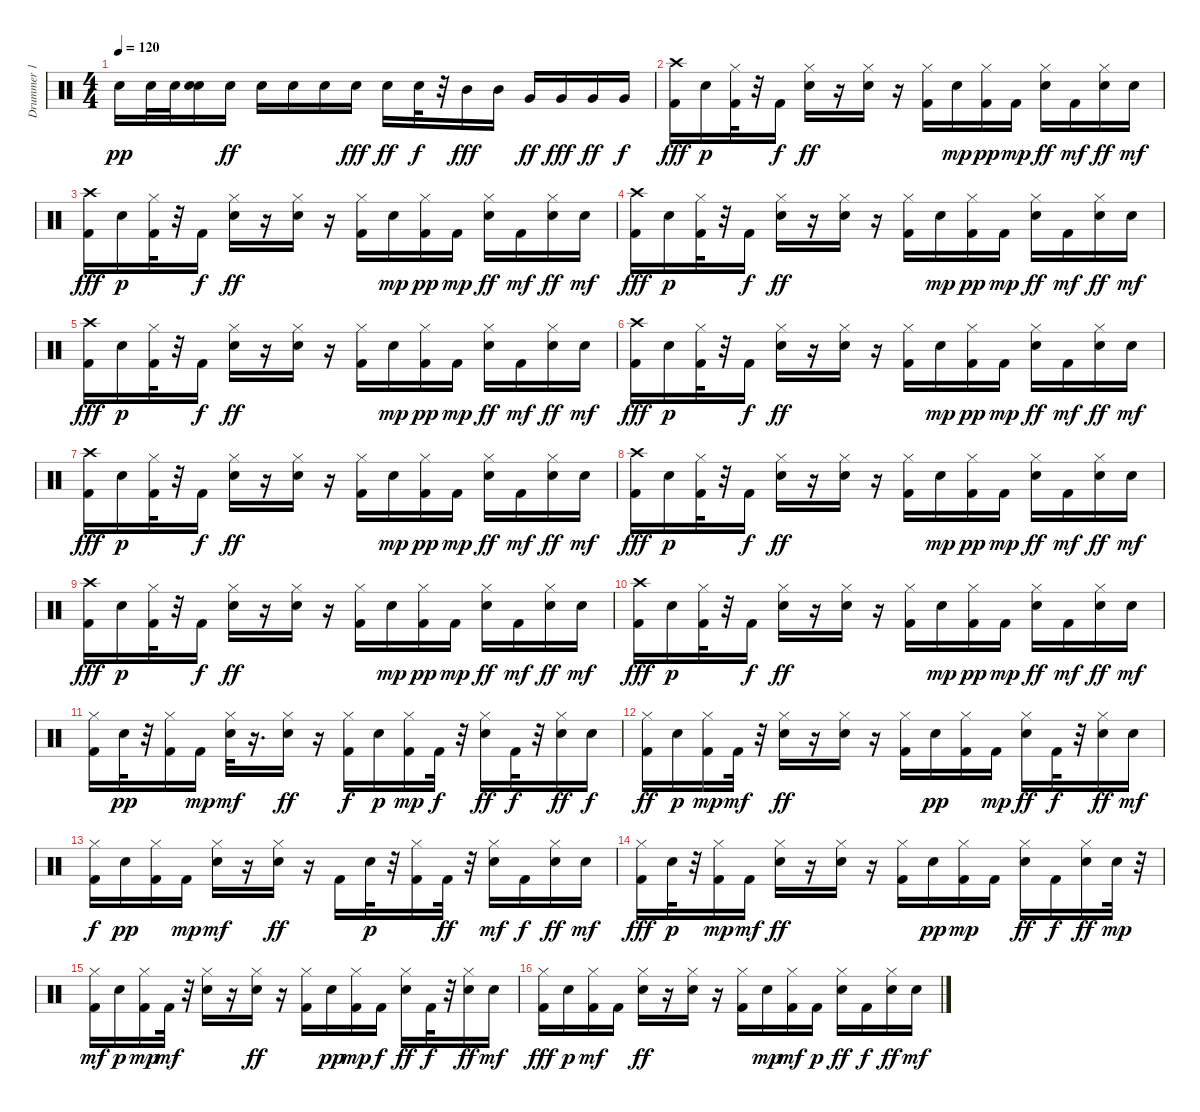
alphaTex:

\track ("Drummer 1" "Drummer 1") {instrument percussion}
\staff {score}
\articulation defaults
\ts (4 4)
\tempo 120
\clef neutral
\ks c "Electric Snare (hit)".16{dy pp} "Electric Snare (hit)".32 "Electric Snare (hit)".32
("Electric Snare (hit)" "Electric Snare (hit)").16 "Electric Snare (hit)".16{dy ff} "Electric Snare (hit)".16 "Electric Snare (hit)".16 "Electric Snare (hit)".16 "Electric Snare (hit)".16{dy fff} "Electric Snare (hit)".16{dy ff} "Electric Snare (hit)".32{dy f} r.32 "Mid Tom (hit)".16{dy fff} "Mid Tom (hit)".16 "Very Low Tom (hit)".16{dy ff} "Very Low Tom (hit)".16{dy fff} "Very Low Tom (hit)".16{dy ff} "Very Low Tom (hit)".16{dy f} |
("Crash high (hit)" "Kick (hit) 2").16{dy fff} "Electric Snare (hit)".16{dy p} ("Hi-Hat (closed)" "Kick (hit) 2").32 r.32 "Kick (hit) 2".16{dy f} ("Hi-Hat (closed)" "Electric Snare (hit)").16{dy ff} r.16 ("Hi-Hat (closed)" "Electric Snare (hit)").16 r.16 ("Hi-Hat (closed)" "Kick (hit) 2").16 "Electric Snare (hit)".16{dy mp} ("Kick (hit) 2" "Hi-Hat (closed)").16{dy pp} "Kick (hit) 2".16{dy mp} ("Hi-Hat (closed)" "Electric Snare (hit)").16{dy ff} "Kick (hit) 2".16{dy mf} ("Hi-Hat (closed)" "Electric Snare (hit)").16{dy ff} "Electric Snare (hit)".16{dy mf} |
("Crash high (hit)" "Kick (hit) 2").16{dy fff} "Electric Snare (hit)".16{dy p} ("Hi-Hat (closed)" "Kick (hit) 2").32 r.32 "Kick (hit) 2".16{dy f} ("Hi-Hat (closed)" "Electric Snare (hit)").16{dy ff} r.16 ("Hi-Hat (closed)" "Electric Snare (hit)").16 r.16 ("Hi-Hat (closed)" "Kick (hit) 2").16 "Electric Snare (hit)".16{dy mp} ("Kick (hit) 2" "Hi-Hat (closed)").16{dy pp} "Kick (hit) 2".16{dy mp} ("Hi-Hat (closed)" "Electric Snare (hit)").16{dy ff} "Kick (hit) 2".16{dy mf} ("Hi-Hat (closed)" "Electric Snare (hit)").16{dy ff} "Electric Snare (hit)".16{dy mf} |
("Crash high (hit)" "Kick (hit) 2").16{dy fff} "Electric Snare (hit)".16{dy p} ("Hi-Hat (closed)" "Kick (hit) 2").32 r.32 "Kick (hit) 2".16{dy f} ("Hi-Hat (closed)" "Electric Snare (hit)").16{dy ff} r.16 ("Hi-Hat (closed)" "Electric Snare (hit)").16 r.16 ("Hi-Hat (closed)" "Kick (hit) 2").16 "Electric Snare (hit)".16{dy mp} ("Kick (hit) 2" "Hi-Hat (closed)").16{dy pp} "Kick (hit) 2".16{dy mp} ("Hi-Hat (closed)" "Electric Snare (hit)").16{dy ff} "Kick (hit) 2".16{dy mf} ("Hi-Hat (closed)" "Electric Snare (hit)").16{dy ff} "Electric Snare (hit)".16{dy mf} |
("Crash high (hit)" "Kick (hit) 2").16{dy fff} "Electric Snare (hit)".16{dy p} ("Hi-Hat (closed)" "Kick (hit) 2").32 r.32 "Kick (hit) 2".16{dy f} ("Hi-Hat (closed)" "Electric Snare (hit)").16{dy ff} r.16 ("Hi-Hat (closed)" "Electric Snare (hit)").16 r.16 ("Hi-Hat (closed)" "Kick (hit) 2").16 "Electric Snare (hit)".16{dy mp} ("Kick (hit) 2" "Hi-Hat (closed)").16{dy pp} "Kick (hit) 2".16{dy mp} ("Hi-Hat (closed)" "Electric Snare (hit)").16{dy ff} "Kick (hit) 2".16{dy mf} ("Hi-Hat (closed)" "Electric Snare (hit)").16{dy ff} "Electric Snare (hit)".16{dy mf} |
("Crash high (hit)" "Kick (hit) 2").16{dy fff} "Electric Snare (hit)".16{dy p} ("Hi-Hat (closed)" "Kick (hit) 2").32 r.32 "Kick (hit) 2".16{dy f} ("Hi-Hat (closed)" "Electric Snare (hit)").16{dy ff} r.16 ("Hi-Hat (closed)" "Electric Snare (hit)").16 r.16 ("Hi-Hat (closed)" "Kick (hit) 2").16 "Electric Snare (hit)".16{dy mp} ("Kick (hit) 2" "Hi-Hat (closed)").16{dy pp} "Kick (hit) 2".16{dy mp} ("Hi-Hat (closed)" "Electric Snare (hit)").16{dy ff} "Kick (hit) 2".16{dy mf} ("Hi-Hat (closed)" "Electric Snare (hit)").16{dy ff} "Electric Snare (hit)".16{dy mf} |
("Crash high (hit)" "Kick (hit) 2").16{dy fff} "Electric Snare (hit)".16{dy p} ("Hi-Hat (closed)" "Kick (hit) 2").32 r.32 "Kick (hit) 2".16{dy f} ("Hi-Hat (closed)" "Electric Snare (hit)").16{dy ff} r.16 ("Hi-Hat (closed)" "Electric Snare (hit)").16 r.16 ("Hi-Hat (closed)" "Kick (hit) 2").16 "Electric Snare (hit)".16{dy mp} ("Kick (hit) 2" "Hi-Hat (closed)").16{dy pp} "Kick (hit) 2".16{dy mp} ("Hi-Hat (closed)" "Electric Snare (hit)").16{dy ff} "Kick (hit) 2".16{dy mf} ("Hi-Hat (closed)" "Electric Snare (hit)").16{dy ff} "Electric Snare (hit)".16{dy mf} |
("Crash high (hit)" "Kick (hit) 2").16{dy fff} "Electric Snare (hit)".16{dy p} ("Hi-Hat (closed)" "Kick (hit) 2").32 r.32 "Kick (hit) 2".16{dy f} ("Hi-Hat (closed)" "Electric Snare (hit)").16{dy ff} r.16 ("Hi-Hat (closed)" "Electric Snare (hit)").16 r.16 ("Hi-Hat (closed)" "Kick (hit) 2").16 "Electric Snare (hit)".16{dy mp} ("Kick (hit) 2" "Hi-Hat (closed)").16{dy pp} "Kick (hit) 2".16{dy mp} ("Hi-Hat (closed)" "Electric Snare (hit)").16{dy ff} "Kick (hit) 2".16{dy mf} ("Hi-Hat (closed)" "Electric Snare (hit)").16{dy ff} "Electric Snare (hit)".16{dy mf} |
("Crash high (hit)" "Kick (hit) 2").16{dy fff} "Electric Snare (hit)".16{dy p} ("Hi-Hat (closed)" "Kick (hit) 2").32 r.32 "Kick (hit) 2".16{dy f} ("Hi-Hat (closed)" "Electric Snare (hit)").16{dy ff} r.16 ("Hi-Hat (closed)" "Electric Snare (hit)").16 r.16 ("Hi-Hat (closed)" "Kick (hit) 2").16 "Electric Snare (hit)".16{dy mp} ("Kick (hit) 2" "Hi-Hat (closed)").16{dy pp} "Kick (hit) 2".16{dy mp} ("Hi-Hat (closed)" "Electric Snare (hit)").16{dy ff} "Kick (hit) 2".16{dy mf} ("Hi-Hat (closed)" "Electric Snare (hit)").16{dy ff} "Electric Snare (hit)".16{dy mf} |
("Crash high (hit)" "Kick (hit) 2").16{dy fff} "Electric Snare (hit)".16{dy p} ("Hi-Hat (closed)" "Kick (hit) 2").32 r.32 "Kick (hit) 2".16{dy f} ("Hi-Hat (closed)" "Electric Snare (hit)").16{dy ff} r.16 ("Hi-Hat (closed)" "Electric Snare (hit)").16 r.16 ("Hi-Hat (closed)" "Kick (hit) 2").16 "Electric Snare (hit)".16{dy mp} ("Kick (hit) 2" "Hi-Hat (closed)").16{dy pp} "Kick (hit) 2".16{dy mp} ("Hi-Hat (closed)" "Electric Snare (hit)").16{dy ff} "Kick (hit) 2".16{dy mf} ("Hi-Hat (closed)" "Electric Snare (hit)").16{dy ff} "Electric Snare (hit)".16{dy mf} |
("Hi-Hat (closed)" "Kick (hit) 2").16 "Electric Snare (hit)".32{dy pp} r.32 ("Kick (hit) 2" "Hi-Hat (closed)").16 "Kick (hit) 2".16{dy mp} ("Electric Snare (hit)" "Hi-Hat (closed)").32{dy mf} r.16{d} ("Hi-Hat (closed)" "Electric Snare (hit)").16{dy ff} r.16 ("Hi-Hat (closed)" "Kick (hit) 2").16{dy f} "Electric Snare (hit)".16{dy p} ("Hi-Hat (closed)" "Kick (hit) 2").16{dy mp} "Kick (hit) 2".32{dy f} r.32 ("Hi-Hat (closed)" "Electric Snare (hit)").16{dy ff} "Kick (hit) 2".32{dy f} r.32 ("Hi-Hat (closed)" "Electric Snare (hit)").16{dy ff} "Electric Snare (hit)".16{dy f} |
("Hi-Hat (closed)" "Kick (hit) 2").16{dy ff} "Electric Snare (hit)".16{dy p} ("Hi-Hat (closed)" "Kick (hit) 2").16{dy mp} "Kick (hit) 2".32{dy mf} r.32 ("Hi-Hat (closed)" "Electric Snare (hit)").16{dy ff} r.16 ("Hi-Hat (closed)" "Electric Snare (hit)").16 r.16 ("Hi-Hat (closed)" "Kick (hit) 2").16 "Electric Snare (hit)".16{dy pp} ("Kick (hit) 2" "Hi-Hat (closed)").16 "Kick (hit) 2".16{dy mp} ("Hi-Hat (closed)" "Electric Snare (hit)").16{dy ff} "Kick (hit) 2".32{dy f} r.32 ("Hi-Hat (closed)" "Electric Snare (hit)").16{dy ff} "Electric Snare (hit)".16{dy mf} |
("Hi-Hat (closed)" "Kick (hit) 2").16{dy f} "Electric Snare (hit)".16{dy pp} ("Kick (hit) 2" "Hi-Hat (closed)").16 "Kick (hit) 2".16{dy mp} ("Electric Snare (hit)" "Hi-Hat (closed)").16{dy mf} r.16 ("Hi-Hat (closed)" "Electric Snare (hit)").16{dy ff} r.16 "Kick (hit) 2".16 "Electric Snare (hit)".32{dy p} r.32 ("Hi-Hat (closed)" "Kick (hit) 2").16 "Kick (hit) 2".32{dy ff} r.32 ("Hi-Hat (closed)" "Electric Snare (hit)").16{dy mf} "Kick (hit) 2".16{dy f} ("Hi-Hat (closed)" "Electric Snare (hit)").16{dy ff} "Electric Snare (hit)".16{dy mf} |
("Hi-Hat (closed)" "Kick (hit) 2").16{dy fff} "Electric Snare (hit)".32{dy p} r.32 ("Hi-Hat (closed)" "Kick (hit) 2").16{dy mp} "Kick (hit) 2".16{dy mf} ("Hi-Hat (closed)" "Electric Snare (hit)").16{dy ff} r.16 ("Hi-Hat (closed)" "Electric Snare (hit)").16 r.16 ("Hi-Hat (closed)" "Kick (hit) 2").16 "Electric Snare (hit)".16{dy pp} ("Kick (hit) 2" "Hi-Hat (closed)").16{dy mp} "Kick (hit) 2".16 ("Hi-Hat (closed)" "Electric Snare (hit)").16{dy ff} "Kick (hit) 2".16{dy f} ("Hi-Hat (closed)" "Electric Snare (hit)").16{dy ff} "Electric Snare (hit)".32{dy mp} r.32 |
("Hi-Hat (closed)" "Kick (hit) 2").16{dy mf} "Electric Snare (hit)".16{dy p} ("Kick (hit) 2" "Hi-Hat (closed)").16{dy mp} "Kick (hit) 2".32{dy mf} r.32 ("Electric Snare (hit)" "Hi-Hat (closed)").16 r.16 ("Hi-Hat (closed)" "Electric Snare (hit)").16{dy ff} r.16 ("Hi-Hat (closed)" "Kick (hit) 2").16 "Electric Snare (hit)".16{dy pp} ("Hi-Hat (closed)" "Kick (hit) 2").16{dy mp} "Kick (hit) 2".16{dy f} ("Hi-Hat (closed)" "Electric Snare (hit)").16{dy ff} "Kick (hit) 2".32{dy f} r.32 ("Hi-Hat (closed)" "Electric Snare (hit)").16{dy ff} "Electric Snare (hit)".16{dy mf} |
("Hi-Hat (closed)" "Kick (hit) 2").16{dy fff} "Electric Snare (hit)".16{dy p} ("Hi-Hat (closed)" "Kick (hit) 2").16{dy mf} "Kick (hit) 2".16 ("Hi-Hat (closed)" "Electric Snare (hit)").16{dy ff} r.16 ("Hi-Hat (closed)" "Electric Snare (hit)").16 r.16 ("Hi-Hat (closed)" "Kick (hit) 2").16 "Electric Snare (hit)".16{dy mp} ("Kick (hit) 2" "Hi-Hat (closed)").16{dy mf} "Kick (hit) 2".16{dy p} ("Hi-Hat (closed)" "Electric Snare (hit)").16{dy ff} "Kick (hit) 2".16{dy f} ("Hi-Hat (closed)" "Electric Snare (hit)").16{dy ff} "Electric Snare (hit)".16{dy mf}
